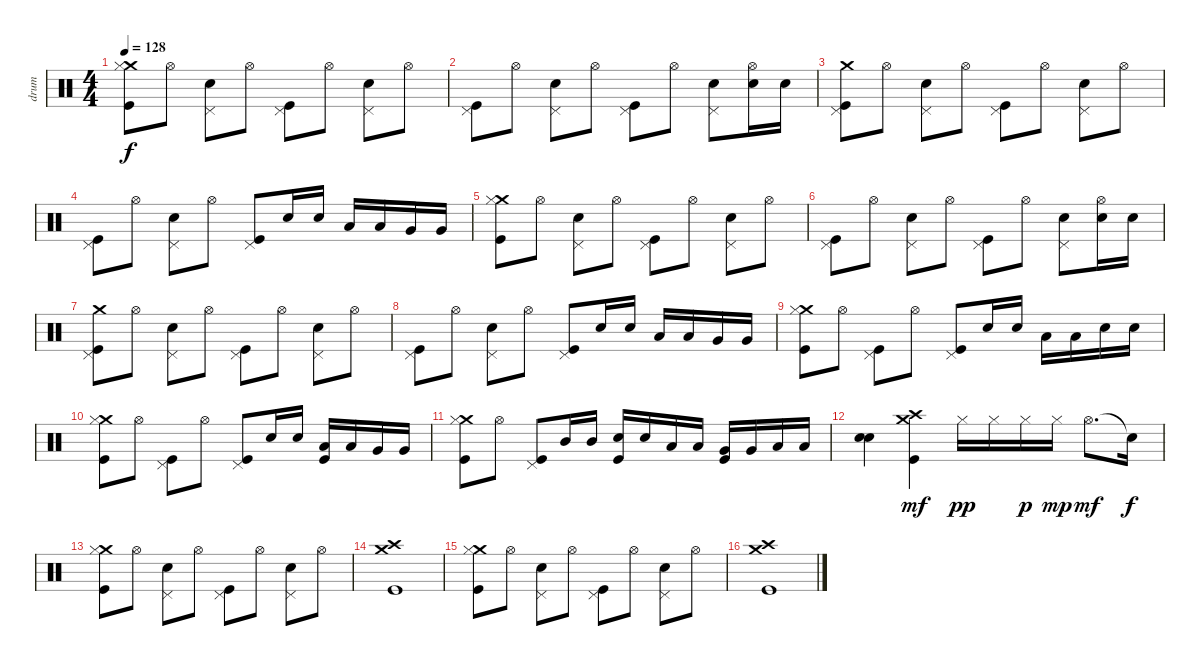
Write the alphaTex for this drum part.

\track ("drum" "drum") {instrument percussion}
\staff {score}
\articulation defaults
\ts (4 4)
\tempo 128
\clef neutral
\ks c
("Crash medium (hit)" "Hi-Hat (closed)" "Kick (hit)").8{dy f} "Hi-Hat (open)".8 ("Pedal Hi-Hat (hit)" "Snare (hit) 2").8 "Hi-Hat (open)".8 ("Pedal Hi-Hat (hit)" "Kick (hit)").8 "Hi-Hat (open)".8 ("Pedal Hi-Hat (hit)" "Snare (hit) 2").8 "Hi-Hat (open)".8 |
("Pedal Hi-Hat (hit)" "Kick (hit)").8 "Hi-Hat (open)".8 ("Pedal Hi-Hat (hit)" "Snare (hit) 2").8 "Hi-Hat (open)".8 ("Pedal Hi-Hat (hit)" "Kick (hit)").8 "Hi-Hat (open)".8 ("Pedal Hi-Hat (hit)" "Snare (hit) 2").8 ("Hi-Hat (open)" "Snare (hit) 2").16 "Snare (hit) 2".16 |
("Crash medium (hit)" "Pedal Hi-Hat (hit)" "Kick (hit)").8 "Hi-Hat (open)".8 ("Pedal Hi-Hat (hit)" "Snare (hit) 2").8 "Hi-Hat (open)".8 ("Pedal Hi-Hat (hit)" "Kick (hit)").8 "Hi-Hat (open)".8 ("Pedal Hi-Hat (hit)" "Snare (hit) 2").8 "Hi-Hat (open)".8 |
("Pedal Hi-Hat (hit)" "Kick (hit)").8 "Hi-Hat (open)".8 ("Pedal Hi-Hat (hit)" "Snare (hit) 2").8 "Hi-Hat (open)".8 ("Pedal Hi-Hat (hit)" "Kick (hit)").8 "Snare (hit) 2".16 "Snare (hit) 2".16 "Low Tom (hit)".16 "Low Tom (hit)".16 "Very Low Tom (hit)".16 "Very Low Tom (hit)".16 |
("Crash medium (hit)" "Hi-Hat (closed)" "Kick (hit)").8 "Hi-Hat (open)".8 ("Pedal Hi-Hat (hit)" "Snare (hit) 2").8 "Hi-Hat (open)".8 ("Pedal Hi-Hat (hit)" "Kick (hit)").8 "Hi-Hat (open)".8 ("Pedal Hi-Hat (hit)" "Snare (hit) 2").8 "Hi-Hat (open)".8 |
("Pedal Hi-Hat (hit)" "Kick (hit)").8 "Hi-Hat (open)".8 ("Pedal Hi-Hat (hit)" "Snare (hit) 2").8 "Hi-Hat (open)".8 ("Pedal Hi-Hat (hit)" "Kick (hit)").8 "Hi-Hat (open)".8 ("Pedal Hi-Hat (hit)" "Snare (hit) 2").8 ("Hi-Hat (open)" "Snare (hit) 2").16 "Snare (hit) 2".16 |
("Crash medium (hit)" "Pedal Hi-Hat (hit)" "Kick (hit)").8 "Hi-Hat (open)".8 ("Pedal Hi-Hat (hit)" "Snare (hit) 2").8 "Hi-Hat (open)".8 ("Pedal Hi-Hat (hit)" "Kick (hit)").8 "Hi-Hat (open)".8 ("Pedal Hi-Hat (hit)" "Snare (hit) 2").8 "Hi-Hat (open)".8 |
("Pedal Hi-Hat (hit)" "Kick (hit)").8 "Hi-Hat (open)".8 ("Pedal Hi-Hat (hit)" "Snare (hit) 2").8 "Hi-Hat (open)".8 ("Pedal Hi-Hat (hit)" "Kick (hit)").8 "Snare (hit) 2".16 "Snare (hit) 2".16 "Low Tom (hit)".16 "Low Tom (hit)".16 "Very Low Tom (hit)".16 "Very Low Tom (hit)".16 |
("Crash medium (hit)" "Hi-Hat (closed)" "Kick (hit)").8 "Hi-Hat (open)".8 ("Pedal Hi-Hat (hit)" "Kick (hit)").8 "Hi-Hat (open)".8 ("Pedal Hi-Hat (hit)" "Kick (hit)").8 "Snare (hit) 2".16 "Snare (hit) 2".16 "Low Tom (hit)".16 "Low Tom (hit)".16 "Snare (hit) 2".16 "Snare (hit) 2".16 |
("Crash medium (hit)" "Hi-Hat (closed)" "Kick (hit)").8 "Hi-Hat (open)".8 ("Pedal Hi-Hat (hit)" "Kick (hit)").8 "Hi-Hat (open)".8 ("Pedal Hi-Hat (hit)" "Kick (hit)").8 "Snare (hit) 2".16 "Snare (hit) 2".16 ("Low Tom (hit)" "Kick (hit)").16 "Low Tom (hit)".16 "Very Low Tom (hit)".16 "Very Low Tom (hit)".16 |
("Crash medium (hit)" "Hi-Hat (closed)" "Kick (hit)").8 "Hi-Hat (open)".8 ("Pedal Hi-Hat (hit)" "Kick (hit)").8 "Mid Tom (hit)".16 "Mid Tom (hit)".16 ("Snare (hit) 2" "Kick (hit)").16 "Snare (hit) 2".16 "Low Tom (hit)".16 "Low Tom (hit)".16 ("Very Low Tom (hit)" "Kick (hit)").16 "Very Low Tom (hit)".16 "Low Floor Tom (hit)".16 "Low Floor Tom (hit)".16 |
("Snare (hit) 2" "Snare (hit) 2").4{bd 240} ("Crash high (hit)" "Crash medium (hit)" "Kick (hit)").4{dy mf} "Hi-Hat (closed)".16{dy pp} "Hi-Hat (closed)".16 "Hi-Hat (closed)".16{dy p} "Hi-Hat (closed)".16{dy mp} "Hi-Hat (open)".8{d dy mf} "Snare (hit)"{t}.16{dy f} |
("Crash medium (hit)" "Hi-Hat (closed)" "Kick (hit)").8 "Hi-Hat (open)".8 ("Pedal Hi-Hat (hit)" "Snare (hit) 2").8 "Hi-Hat (open)".8 ("Pedal Hi-Hat (hit)" "Kick (hit)").8 "Hi-Hat (open)".8 ("Pedal Hi-Hat (hit)" "Snare (hit) 2").8 "Hi-Hat (open)".8 |
("Crash medium (hit)" "Crash high (hit)" "Kick (hit)").1 |
("Crash medium (hit)" "Hi-Hat (closed)" "Kick (hit)").8 "Hi-Hat (open)".8 ("Pedal Hi-Hat (hit)" "Snare (hit) 2").8 "Hi-Hat (open)".8 ("Pedal Hi-Hat (hit)" "Kick (hit)").8 "Hi-Hat (open)".8 ("Pedal Hi-Hat (hit)" "Snare (hit) 2").8 "Hi-Hat (open)".8 |
("Crash medium (hit)" "Crash high (hit)" "Kick (hit)").1
